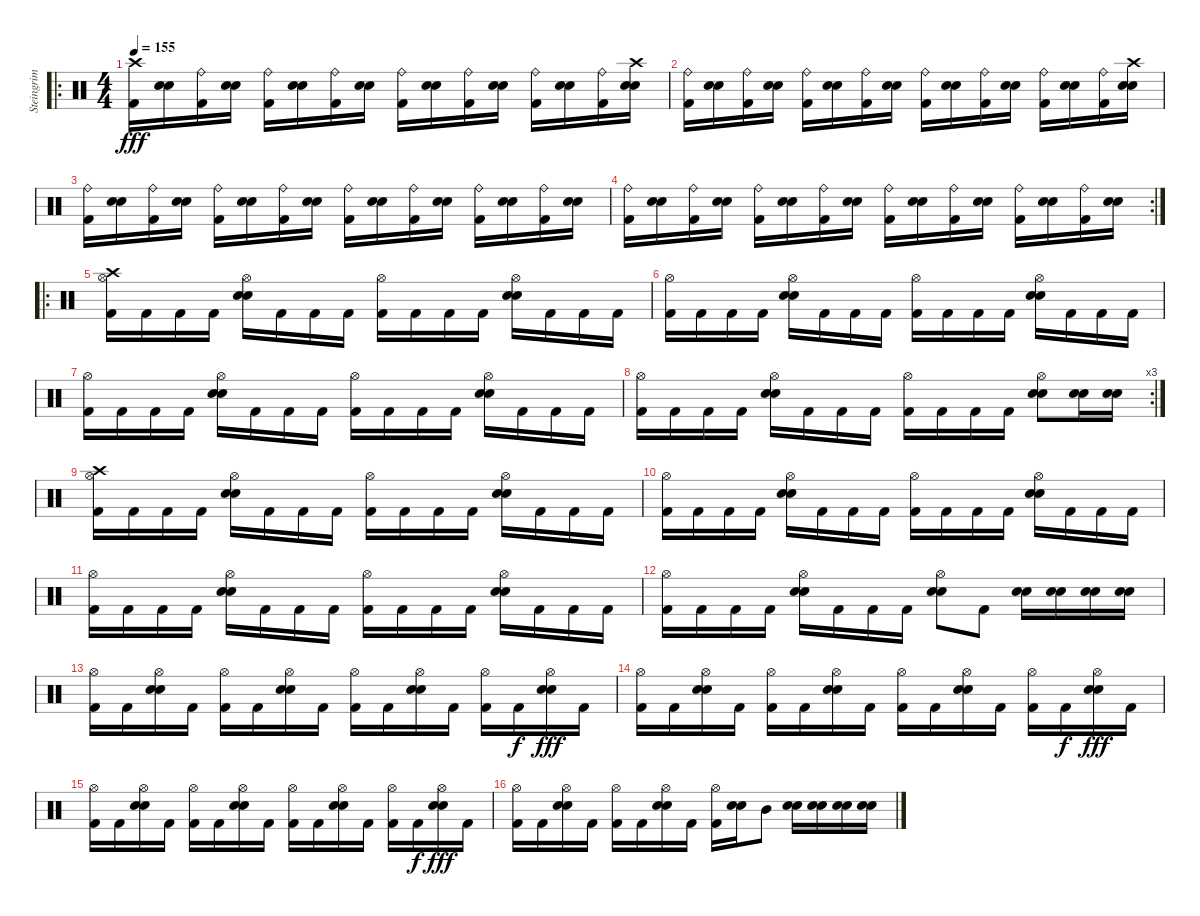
\track ("Steingrim" "Steingrim") {instrument percussion}
\staff {score}
\articulation defaults
\ro
\ts (4 4)
\tempo 155
\clef neutral
\ks c
("Kick (hit) 2" "Crash high (hit)").16{dy fff} ("Snare (hit) 2" "Electric Snare (hit)").16 ("Kick (hit) 2" "Ride (bell)").16 ("Snare (hit) 2" "Electric Snare (hit)").16 ("Kick (hit) 2" "Ride (bell)").16 ("Snare (hit) 2" "Electric Snare (hit)").16 ("Kick (hit) 2" "Ride (bell)").16 ("Snare (hit) 2" "Electric Snare (hit)").16 ("Kick (hit) 2" "Ride (bell)").16 ("Snare (hit) 2" "Electric Snare (hit)").16 ("Kick (hit) 2" "Ride (bell)").16 ("Snare (hit) 2" "Electric Snare (hit)").16 ("Kick (hit) 2" "Ride (bell)").16 ("Snare (hit) 2" "Electric Snare (hit)").16 ("Kick (hit) 2" "Ride (bell)").16 ("Snare (hit) 2" "Electric Snare (hit)" "Crash high (hit)").16 |
("Kick (hit) 2" "Ride (bell)").16 ("Snare (hit) 2" "Electric Snare (hit)").16 ("Kick (hit) 2" "Ride (bell)").16 ("Snare (hit) 2" "Electric Snare (hit)").16 ("Kick (hit) 2" "Ride (bell)").16 ("Snare (hit) 2" "Electric Snare (hit)").16 ("Kick (hit) 2" "Ride (bell)").16 ("Snare (hit) 2" "Electric Snare (hit)").16 ("Kick (hit) 2" "Ride (bell)").16 ("Snare (hit) 2" "Electric Snare (hit)").16 ("Kick (hit) 2" "Ride (bell)").16 ("Snare (hit) 2" "Electric Snare (hit)").16 ("Kick (hit) 2" "Ride (bell)").16 ("Snare (hit) 2" "Electric Snare (hit)").16 ("Kick (hit) 2" "Ride (bell)").16 ("Snare (hit) 2" "Electric Snare (hit)" "Crash high (hit)").16 |
("Kick (hit) 2" "Ride (bell)").16 ("Snare (hit) 2" "Electric Snare (hit)").16 ("Kick (hit) 2" "Ride (bell)").16 ("Snare (hit) 2" "Electric Snare (hit)").16 ("Kick (hit) 2" "Ride (bell)").16 ("Snare (hit) 2" "Electric Snare (hit)").16 ("Kick (hit) 2" "Ride (bell)").16 ("Snare (hit) 2" "Electric Snare (hit)").16 ("Kick (hit) 2" "Ride (bell)").16 ("Snare (hit) 2" "Electric Snare (hit)").16 ("Kick (hit) 2" "Ride (bell)").16 ("Snare (hit) 2" "Electric Snare (hit)").16 ("Kick (hit) 2" "Ride (bell)").16 ("Snare (hit) 2" "Electric Snare (hit)").16 ("Kick (hit) 2" "Ride (bell)").16 ("Snare (hit) 2" "Electric Snare (hit)").16 |
\rc 2
("Kick (hit) 2" "Ride (bell)").16 ("Snare (hit) 2" "Electric Snare (hit)").16 ("Kick (hit) 2" "Ride (bell)").16 ("Snare (hit) 2" "Electric Snare (hit)").16 ("Kick (hit) 2" "Ride (bell)").16 ("Snare (hit) 2" "Electric Snare (hit)").16 ("Kick (hit) 2" "Ride (bell)").16 ("Snare (hit) 2" "Electric Snare (hit)").16 ("Kick (hit) 2" "Ride (bell)").16 ("Snare (hit) 2" "Electric Snare (hit)").16 ("Kick (hit) 2" "Ride (bell)").16 ("Snare (hit) 2" "Electric Snare (hit)").16 ("Kick (hit) 2" "Ride (bell)").16 ("Snare (hit) 2" "Electric Snare (hit)").16 ("Kick (hit) 2" "Ride (bell)").16 ("Snare (hit) 2" "Electric Snare (hit)").16 |
\ro
("Kick (hit) 2" "Hi-Hat (open)" "Crash high (hit)").16 "Kick (hit) 2".16 "Kick (hit) 2".16 "Kick (hit) 2".16 ("Snare (hit) 2" "Electric Snare (hit)" "Hi-Hat (open)").16 "Kick (hit) 2".16 "Kick (hit) 2".16 "Kick (hit) 2".16 ("Kick (hit) 2" "Hi-Hat (open)").16 "Kick (hit) 2".16 "Kick (hit) 2".16 "Kick (hit) 2".16 ("Snare (hit) 2" "Electric Snare (hit)" "Hi-Hat (open)").16 "Kick (hit) 2".16 "Kick (hit) 2".16 "Kick (hit) 2".16 |
("Kick (hit) 2" "Hi-Hat (open)").16 "Kick (hit) 2".16 "Kick (hit) 2".16 "Kick (hit) 2".16 ("Snare (hit) 2" "Electric Snare (hit)" "Hi-Hat (open)").16 "Kick (hit) 2".16 "Kick (hit) 2".16 "Kick (hit) 2".16 ("Kick (hit) 2" "Hi-Hat (open)").16 "Kick (hit) 2".16 "Kick (hit) 2".16 "Kick (hit) 2".16 ("Snare (hit) 2" "Electric Snare (hit)" "Hi-Hat (open)").16 "Kick (hit) 2".16 "Kick (hit) 2".16 "Kick (hit) 2".16 |
("Kick (hit) 2" "Hi-Hat (open)").16 "Kick (hit) 2".16 "Kick (hit) 2".16 "Kick (hit) 2".16 ("Snare (hit) 2" "Electric Snare (hit)" "Hi-Hat (open)").16 "Kick (hit) 2".16 "Kick (hit) 2".16 "Kick (hit) 2".16 ("Kick (hit) 2" "Hi-Hat (open)").16 "Kick (hit) 2".16 "Kick (hit) 2".16 "Kick (hit) 2".16 ("Snare (hit) 2" "Electric Snare (hit)" "Hi-Hat (open)").16 "Kick (hit) 2".16 "Kick (hit) 2".16 "Kick (hit) 2".16 |
\rc 3
("Kick (hit) 2" "Hi-Hat (open)").16 "Kick (hit) 2".16 "Kick (hit) 2".16 "Kick (hit) 2".16 ("Snare (hit) 2" "Electric Snare (hit)" "Hi-Hat (open)").16 "Kick (hit) 2".16 "Kick (hit) 2".16 "Kick (hit) 2".16 ("Kick (hit) 2" "Hi-Hat (open)").16 "Kick (hit) 2".16 "Kick (hit) 2".16 "Kick (hit) 2".16 ("Snare (hit) 2" "Electric Snare (hit)" "Hi-Hat (open)").8 ("Snare (hit) 2" "Electric Snare (hit)").16 ("Snare (hit) 2" "Electric Snare (hit)").16 |
("Kick (hit) 2" "Hi-Hat (open)" "Crash high (hit)").16 "Kick (hit) 2".16 "Kick (hit) 2".16 "Kick (hit) 2".16 ("Snare (hit) 2" "Electric Snare (hit)" "Hi-Hat (open)").16 "Kick (hit) 2".16 "Kick (hit) 2".16 "Kick (hit) 2".16 ("Kick (hit) 2" "Hi-Hat (open)").16 "Kick (hit) 2".16 "Kick (hit) 2".16 "Kick (hit) 2".16 ("Snare (hit) 2" "Electric Snare (hit)" "Hi-Hat (open)").16 "Kick (hit) 2".16 "Kick (hit) 2".16 "Kick (hit) 2".16 |
("Kick (hit) 2" "Hi-Hat (open)").16 "Kick (hit) 2".16 "Kick (hit) 2".16 "Kick (hit) 2".16 ("Snare (hit) 2" "Electric Snare (hit)" "Hi-Hat (open)").16 "Kick (hit) 2".16 "Kick (hit) 2".16 "Kick (hit) 2".16 ("Kick (hit) 2" "Hi-Hat (open)").16 "Kick (hit) 2".16 "Kick (hit) 2".16 "Kick (hit) 2".16 ("Snare (hit) 2" "Electric Snare (hit)" "Hi-Hat (open)").16 "Kick (hit) 2".16 "Kick (hit) 2".16 "Kick (hit) 2".16 |
("Kick (hit) 2" "Hi-Hat (open)").16 "Kick (hit) 2".16 "Kick (hit) 2".16 "Kick (hit) 2".16 ("Snare (hit) 2" "Electric Snare (hit)" "Hi-Hat (open)").16 "Kick (hit) 2".16 "Kick (hit) 2".16 "Kick (hit) 2".16 ("Kick (hit) 2" "Hi-Hat (open)").16 "Kick (hit) 2".16 "Kick (hit) 2".16 "Kick (hit) 2".16 ("Snare (hit) 2" "Electric Snare (hit)" "Hi-Hat (open)").16 "Kick (hit) 2".16 "Kick (hit) 2".16 "Kick (hit) 2".16 |
("Kick (hit) 2" "Hi-Hat (open)").16 "Kick (hit) 2".16 "Kick (hit) 2".16 "Kick (hit) 2".16 ("Snare (hit) 2" "Electric Snare (hit)" "Hi-Hat (open)").16 "Kick (hit) 2".16 "Kick (hit) 2".16 "Kick (hit) 2".16 ("Snare (hit) 2" "Electric Snare (hit)" "Hi-Hat (open)").8 "Kick (hit) 2".8 ("Snare (hit) 2" "Electric Snare (hit)").16 ("Snare (hit) 2" "Electric Snare (hit)").16 ("Snare (hit) 2" "Electric Snare (hit)").16 ("Snare (hit) 2" "Electric Snare (hit)").16 |
("Kick (hit) 2" "Hi-Hat (open)").16 "Kick (hit) 2".16 ("Snare (hit) 2" "Electric Snare (hit)" "Hi-Hat (open)").16 "Kick (hit) 2".16 ("Kick (hit) 2" "Hi-Hat (open)").16 "Kick (hit) 2".16 ("Snare (hit) 2" "Electric Snare (hit)" "Hi-Hat (open)").16 "Kick (hit) 2".16 ("Kick (hit) 2" "Hi-Hat (open)").16 "Kick (hit) 2".16 ("Snare (hit) 2" "Electric Snare (hit)" "Hi-Hat (open)").16 "Kick (hit) 2".16 ("Kick (hit) 2" "Hi-Hat (open)").16 "Kick (hit) 2".16{dy f} ("Snare (hit) 2" "Electric Snare (hit)" "Hi-Hat (open)").16{dy fff} "Kick (hit) 2".16 |
("Kick (hit) 2" "Hi-Hat (open)").16 "Kick (hit) 2".16 ("Snare (hit) 2" "Electric Snare (hit)" "Hi-Hat (open)").16 "Kick (hit) 2".16 ("Kick (hit) 2" "Hi-Hat (open)").16 "Kick (hit) 2".16 ("Snare (hit) 2" "Electric Snare (hit)" "Hi-Hat (open)").16 "Kick (hit) 2".16 ("Kick (hit) 2" "Hi-Hat (open)").16 "Kick (hit) 2".16 ("Snare (hit) 2" "Electric Snare (hit)" "Hi-Hat (open)").16 "Kick (hit) 2".16 ("Kick (hit) 2" "Hi-Hat (open)").16 "Kick (hit) 2".16{dy f} ("Snare (hit) 2" "Electric Snare (hit)" "Hi-Hat (open)").16{dy fff} "Kick (hit) 2".16 |
("Kick (hit) 2" "Hi-Hat (open)").16 "Kick (hit) 2".16 ("Snare (hit) 2" "Electric Snare (hit)" "Hi-Hat (open)").16 "Kick (hit) 2".16 ("Kick (hit) 2" "Hi-Hat (open)").16 "Kick (hit) 2".16 ("Snare (hit) 2" "Electric Snare (hit)" "Hi-Hat (open)").16 "Kick (hit) 2".16 ("Kick (hit) 2" "Hi-Hat (open)").16 "Kick (hit) 2".16 ("Snare (hit) 2" "Electric Snare (hit)" "Hi-Hat (open)").16 "Kick (hit) 2".16 ("Kick (hit) 2" "Hi-Hat (open)").16 "Kick (hit) 2".16{dy f} ("Snare (hit) 2" "Electric Snare (hit)" "Hi-Hat (open)").16{dy fff} "Kick (hit) 2".16 |
("Kick (hit) 2" "Hi-Hat (open)").16 "Kick (hit) 2".16 ("Snare (hit) 2" "Electric Snare (hit)" "Hi-Hat (open)").16 "Kick (hit) 2".16 ("Kick (hit) 2" "Hi-Hat (open)").16 "Kick (hit) 2".16 ("Snare (hit) 2" "Electric Snare (hit)" "Hi-Hat (open)").16 "Kick (hit) 2".16 ("Kick (hit) 2" "Hi-Hat (open)").16 ("Snare (hit) 2" "Electric Snare (hit)").16 "Mid Tom (hit)".8 ("Snare (hit) 2" "Electric Snare (hit)").16 ("Snare (hit) 2" "Electric Snare (hit)").16 ("Snare (hit) 2" "Electric Snare (hit)").16 ("Snare (hit) 2" "Electric Snare (hit)").16
